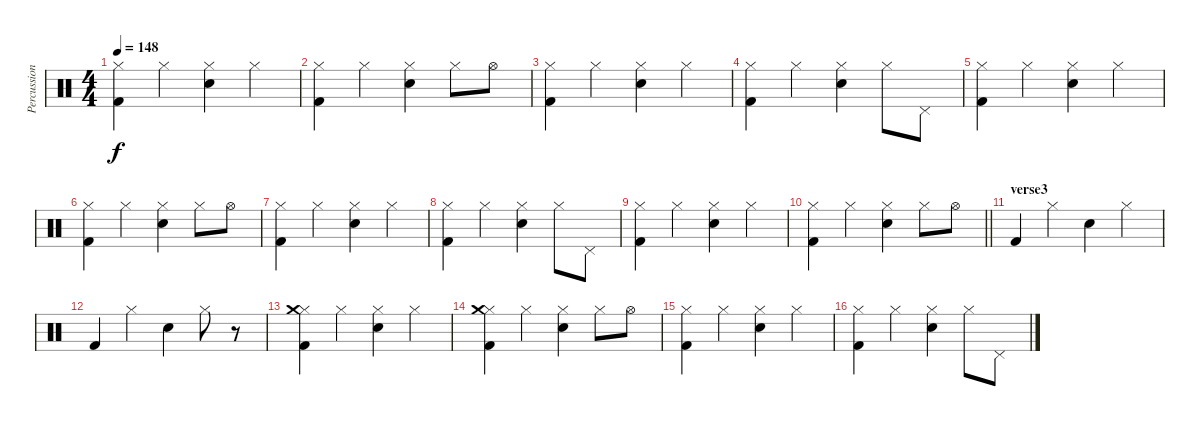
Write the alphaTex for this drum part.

\track ("Percussions" "Percussion") {instrument percussion}
\staff {score}
\articulation defaults
\ts (4 4)
\tempo 148
\clef neutral
\ks c
("Hi-Hat (closed)" "Kick (hit) 2").4{dy f} "Hi-Hat (closed)".4 ("Hi-Hat (closed)" "Snare (hit) 2").4 "Hi-Hat (closed)".4 |
("Hi-Hat (closed)" "Kick (hit) 2").4 "Hi-Hat (closed)".4 ("Hi-Hat (closed)" "Snare (hit) 2").4 "Hi-Hat (closed)".8 "Hi-Hat (open)".8 |
("Hi-Hat (closed)" "Kick (hit) 2").4 "Hi-Hat (closed)".4 ("Hi-Hat (closed)" "Snare (hit) 2").4 "Hi-Hat (closed)".4 |
("Hi-Hat (closed)" "Kick (hit) 2").4 "Hi-Hat (closed)".4 ("Hi-Hat (closed)" "Snare (hit) 2").4 "Hi-Hat (closed)".8 "Pedal Hi-Hat (hit)".8 |
("Hi-Hat (closed)" "Kick (hit) 2").4 "Hi-Hat (closed)".4 ("Hi-Hat (closed)" "Snare (hit) 2").4 "Hi-Hat (closed)".4 |
("Hi-Hat (closed)" "Kick (hit) 2").4 "Hi-Hat (closed)".4 ("Hi-Hat (closed)" "Snare (hit) 2").4 "Hi-Hat (closed)".8 "Hi-Hat (open)".8 |
("Hi-Hat (closed)" "Kick (hit) 2").4 "Hi-Hat (closed)".4 ("Hi-Hat (closed)" "Snare (hit) 2").4 "Hi-Hat (closed)".4 |
("Hi-Hat (closed)" "Kick (hit) 2").4 "Hi-Hat (closed)".4 ("Hi-Hat (closed)" "Snare (hit) 2").4 "Hi-Hat (closed)".8 "Pedal Hi-Hat (hit)".8 |
("Hi-Hat (closed)" "Kick (hit) 2").4 "Hi-Hat (closed)".4 ("Hi-Hat (closed)" "Snare (hit) 2").4 "Hi-Hat (closed)".4 |
\barLineRight lightlight
("Hi-Hat (closed)" "Kick (hit) 2").4 "Hi-Hat (closed)".4 ("Hi-Hat (closed)" "Snare (hit) 2").4 "Hi-Hat (closed)".8 "Hi-Hat (open)".8 |
\section ("" "verse3")
"Kick (hit) 2".4 "Hi-Hat (closed)".4 "Snare (hit) 2".4 "Hi-Hat (closed)".4 |
"Kick (hit) 2".4 "Hi-Hat (closed)".4 "Snare (hit) 2".4 "Hi-Hat (closed)".8 r.8 |
("Hi-Hat (closed)" "Kick (hit) 2" "Crash medium (hit)").4 "Hi-Hat (closed)".4 ("Hi-Hat (closed)" "Snare (hit) 2").4 "Hi-Hat (closed)".4 |
("Hi-Hat (closed)" "Kick (hit) 2" "Crash medium (hit)").4 "Hi-Hat (closed)".4 ("Hi-Hat (closed)" "Snare (hit) 2").4 "Hi-Hat (closed)".8 "Hi-Hat (open)".8 |
("Hi-Hat (closed)" "Kick (hit) 2").4 "Hi-Hat (closed)".4 ("Hi-Hat (closed)" "Snare (hit) 2").4 "Hi-Hat (closed)".4 |
("Hi-Hat (closed)" "Kick (hit) 2").4 "Hi-Hat (closed)".4 ("Hi-Hat (closed)" "Snare (hit) 2").4 "Hi-Hat (closed)".8 "Pedal Hi-Hat (hit)".8
